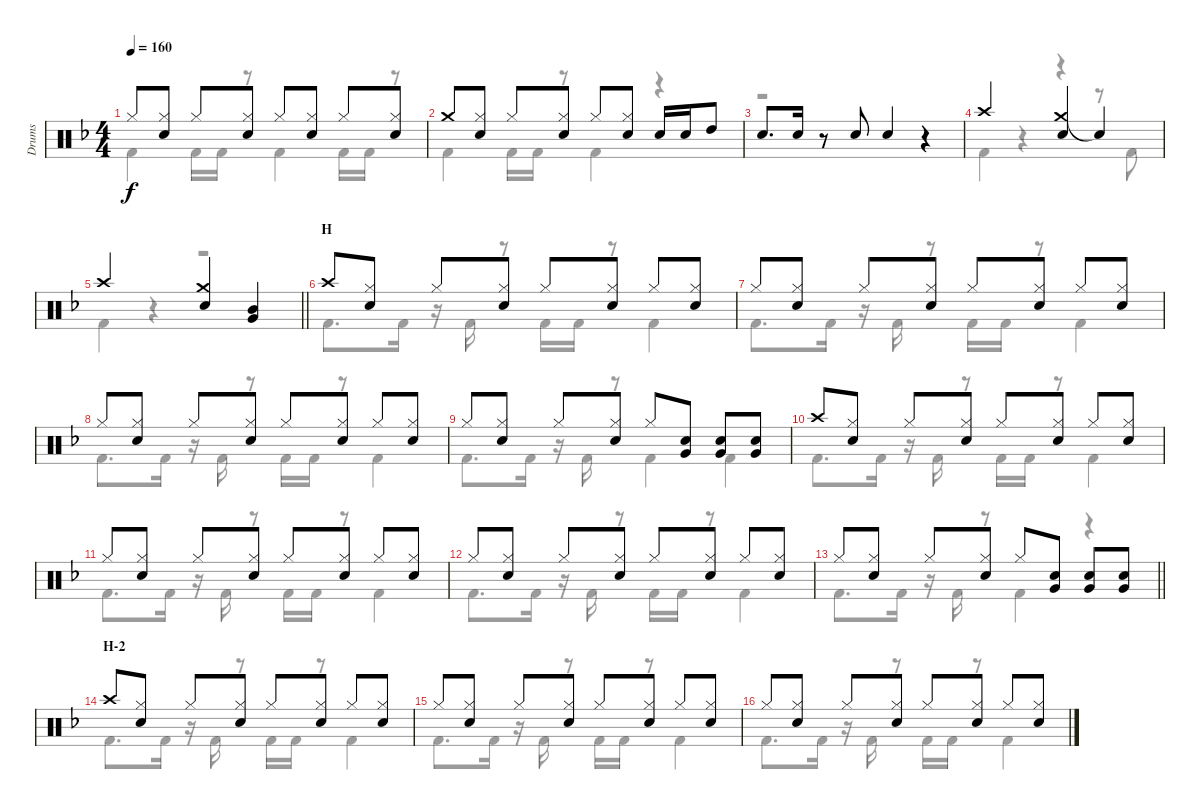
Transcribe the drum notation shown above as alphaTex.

\track ("Drums" "Drums") {instrument percussion}
\staff {score}
\articulation defaults
\voice
\ts (4 4)
\tempo 160
\clef neutral
\ks f "Hi-Hat (closed)".8{dy f}
("Hi-Hat (closed)" "Snare (hit) 2").8 "Hi-Hat (closed)".8 ("Hi-Hat (closed)" "Snare (hit) 2").8 "Hi-Hat (closed)".8 ("Hi-Hat (closed)" "Snare (hit) 2").8 "Hi-Hat (closed)".8 ("Hi-Hat (closed)" "Snare (hit) 2").8 |
"Crash medium (hit)".8 ("Hi-Hat (closed)" "Snare (hit) 2").8 "Hi-Hat (closed)".8 ("Hi-Hat (closed)" "Snare (hit) 2").8 "Hi-Hat (closed)".8 ("Hi-Hat (closed)" "Snare (hit) 2").8 "Snare (hit) 2".16 "Snare (hit) 2".16 "High Tom (hit)".8 |
"Snare (hit) 2".8{d} "Snare (hit) 2".16 r.8 "Snare (hit) 2".8 "Snare (hit) 2".4 r.4 |
"Crash high (hit)".2 ("Crash medium (hit)" "Snare (hit) 2").4 "Snare (hit)"{t}.4 |
\barLineRight lightlight "Crash high (hit)".2
("Crash medium (hit)" "Snare (hit) 2").4 ("Mid Tom (hit)" "Very Low Tom (hit)").4 |
\section ("" "H")
"Crash high (hit)".8 ("Hi-Hat (closed)" "Snare (hit) 2").8 "Hi-Hat (closed)".8 ("Hi-Hat (closed)" "Snare (hit) 2").8 "Hi-Hat (closed)".8 ("Hi-Hat (closed)" "Snare (hit) 2").8 "Hi-Hat (closed)".8 ("Hi-Hat (closed)" "Snare (hit) 2").8 |
"Hi-Hat (closed)".8 ("Hi-Hat (closed)" "Snare (hit) 2").8 "Hi-Hat (closed)".8 ("Hi-Hat (closed)" "Snare (hit) 2").8 "Hi-Hat (closed)".8 ("Hi-Hat (closed)" "Snare (hit) 2").8 "Hi-Hat (closed)".8 ("Hi-Hat (closed)" "Snare (hit) 2").8 |
"Hi-Hat (closed)".8 ("Hi-Hat (closed)" "Snare (hit) 2").8 "Hi-Hat (closed)".8 ("Hi-Hat (closed)" "Snare (hit) 2").8 "Hi-Hat (closed)".8 ("Hi-Hat (closed)" "Snare (hit) 2").8 "Hi-Hat (closed)".8 ("Hi-Hat (closed)" "Snare (hit) 2").8 |
"Hi-Hat (closed)".8 ("Hi-Hat (closed)" "Snare (hit) 2").8 "Hi-Hat (closed)".8 ("Hi-Hat (closed)" "Snare (hit) 2").8 "Hi-Hat (closed)".8 ("Snare (hit) 2" "Very Low Tom (hit)").8 ("Snare (hit) 2" "Very Low Tom (hit)").8 ("Snare (hit) 2" "Very Low Tom (hit)").8 |
"Crash high (hit)".8 ("Hi-Hat (closed)" "Snare (hit) 2").8 "Hi-Hat (closed)".8 ("Hi-Hat (closed)" "Snare (hit) 2").8 "Hi-Hat (closed)".8 ("Hi-Hat (closed)" "Snare (hit) 2").8 "Hi-Hat (closed)".8 ("Hi-Hat (closed)" "Snare (hit) 2").8 |
"Hi-Hat (closed)".8 ("Hi-Hat (closed)" "Snare (hit) 2").8 "Hi-Hat (closed)".8 ("Hi-Hat (closed)" "Snare (hit) 2").8 "Hi-Hat (closed)".8 ("Hi-Hat (closed)" "Snare (hit) 2").8 "Hi-Hat (closed)".8 ("Hi-Hat (closed)" "Snare (hit) 2").8 |
"Hi-Hat (closed)".8 ("Hi-Hat (closed)" "Snare (hit) 2").8 "Hi-Hat (closed)".8 ("Hi-Hat (closed)" "Snare (hit) 2").8 "Hi-Hat (closed)".8 ("Hi-Hat (closed)" "Snare (hit) 2").8 "Hi-Hat (closed)".8 ("Hi-Hat (closed)" "Snare (hit) 2").8 |
\barLineRight lightlight "Hi-Hat (closed)".8
("Hi-Hat (closed)" "Snare (hit) 2").8 "Hi-Hat (closed)".8 ("Hi-Hat (closed)" "Snare (hit) 2").8 "Hi-Hat (closed)".8 ("Snare (hit) 2" "Very Low Tom (hit)").8 ("Snare (hit) 2" "Very Low Tom (hit)").8 ("Snare (hit) 2" "Very Low Tom (hit)").8 |
\section ("" "H-2")
"Crash high (hit)".8 ("Hi-Hat (closed)" "Snare (hit) 2").8 "Hi-Hat (closed)".8 ("Hi-Hat (closed)" "Snare (hit) 2").8 "Hi-Hat (closed)".8 ("Hi-Hat (closed)" "Snare (hit) 2").8 "Hi-Hat (closed)".8 ("Hi-Hat (closed)" "Snare (hit) 2").8 |
"Hi-Hat (closed)".8 ("Hi-Hat (closed)" "Snare (hit) 2").8 "Hi-Hat (closed)".8 ("Hi-Hat (closed)" "Snare (hit) 2").8 "Hi-Hat (closed)".8 ("Hi-Hat (closed)" "Snare (hit) 2").8 "Hi-Hat (closed)".8 ("Hi-Hat (closed)" "Snare (hit) 2").8 |
"Hi-Hat (closed)".8 ("Hi-Hat (closed)" "Snare (hit) 2").8 "Hi-Hat (closed)".8 ("Hi-Hat (closed)" "Snare (hit) 2").8 "Hi-Hat (closed)".8 ("Hi-Hat (closed)" "Snare (hit) 2").8 "Hi-Hat (closed)".8 ("Hi-Hat (closed)" "Snare (hit) 2").8
\voice
\clef neutral
\ottava regular
\simile none
\ks f "Kick (hit) 2".4{dy f} "Kick (hit) 2".16 "Kick (hit) 2".16
r.8 "Kick (hit) 2".4 "Kick (hit) 2".16 "Kick (hit) 2".16 r.8 |
"Kick (hit) 2".4 "Kick (hit) 2".16 "Kick (hit) 2".16 r.8 "Kick (hit) 2".4 r.4 |
r.1 |
"Kick (hit) 2".4 r.4 r.4 r.8 "Kick (hit) 2".8 |
\barLineRight lightlight "Kick (hit) 2".4
r.4 r.2 |
"Kick (hit) 2".8{d} "Kick (hit) 2".16 r.16 "Kick (hit) 2".16 r.8 "Kick (hit) 2".16 "Kick (hit) 2".16 r.8 "Kick (hit) 2".4 |
"Kick (hit) 2".8{d} "Kick (hit) 2".16 r.16 "Kick (hit) 2".16 r.8 "Kick (hit) 2".16 "Kick (hit) 2".16 r.8 "Kick (hit) 2".4 |
"Kick (hit) 2".8{d} "Kick (hit) 2".16 r.16 "Kick (hit) 2".16 r.8 "Kick (hit) 2".16 "Kick (hit) 2".16 r.8 "Kick (hit) 2".4 |
"Kick (hit) 2".8{d} "Kick (hit) 2".16 r.16 "Kick (hit) 2".16 r.8 "Kick (hit) 2".4 "Kick (hit) 2".4 |
"Kick (hit) 2".8{d} "Kick (hit) 2".16 r.16 "Kick (hit) 2".16 r.8 "Kick (hit) 2".16 "Kick (hit) 2".16 r.8 "Kick (hit) 2".4 |
"Kick (hit) 2".8{d} "Kick (hit) 2".16 r.16 "Kick (hit) 2".16 r.8 "Kick (hit) 2".16 "Kick (hit) 2".16 r.8 "Kick (hit) 2".4 |
"Kick (hit) 2".8{d} "Kick (hit) 2".16 r.16 "Kick (hit) 2".16 r.8 "Kick (hit) 2".16 "Kick (hit) 2".16 r.8 "Kick (hit) 2".4 |
\barLineRight lightlight "Kick (hit) 2".8{d} "Kick (hit) 2".16
r.16 "Kick (hit) 2".16 r.8 "Kick (hit) 2".4 r.4 |
"Kick (hit) 2".8{d} "Kick (hit) 2".16 r.16 "Kick (hit) 2".16 r.8 "Kick (hit) 2".16 "Kick (hit) 2".16 r.8 "Kick (hit) 2".4 |
"Kick (hit) 2".8{d} "Kick (hit) 2".16 r.16 "Kick (hit) 2".16 r.8 "Kick (hit) 2".16 "Kick (hit) 2".16 r.8 "Kick (hit) 2".4 |
"Kick (hit) 2".8{d} "Kick (hit) 2".16 r.16 "Kick (hit) 2".16 r.8 "Kick (hit) 2".16 "Kick (hit) 2".16 r.8 "Kick (hit) 2".4
